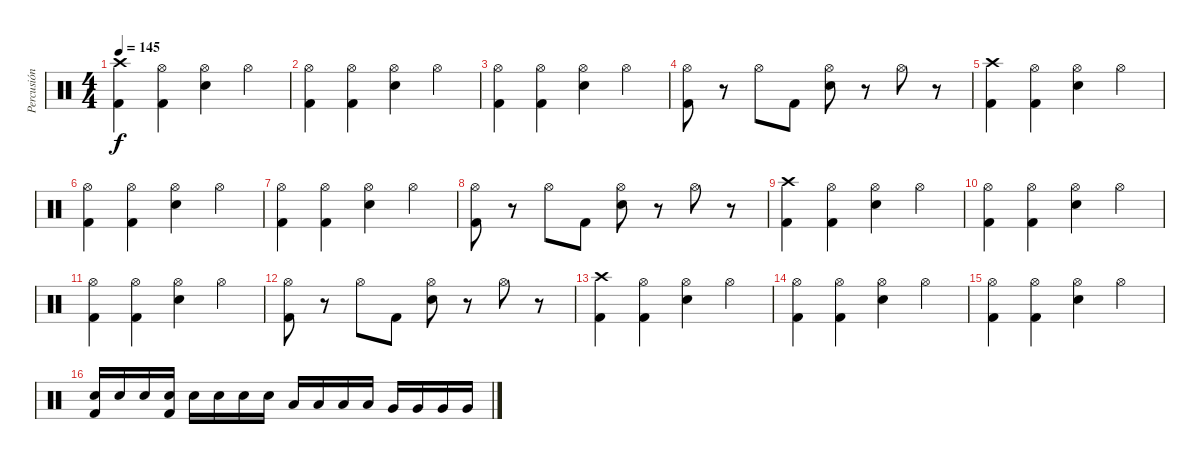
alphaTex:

\track ("Percusión" "Percusión") {instrument percussion}
\staff {score}
\articulation defaults
\ts (4 4)
\tempo 145
\clef neutral
\ks c
("Crash high (hit)" "Kick (hit) 2").4{dy f} ("Hi-Hat (open)" "Kick (hit) 2").4 ("Hi-Hat (open)" "Electric Snare (hit)").4 "Hi-Hat (open)".4 |
("Hi-Hat (open)" "Kick (hit) 2").4 ("Hi-Hat (open)" "Kick (hit) 2").4 ("Hi-Hat (open)" "Electric Snare (hit)").4 "Hi-Hat (open)".4 |
("Hi-Hat (open)" "Kick (hit) 2").4 ("Hi-Hat (open)" "Kick (hit) 2").4 ("Hi-Hat (open)" "Electric Snare (hit)").4 "Hi-Hat (open)".4 |
("Hi-Hat (open)" "Kick (hit) 2").8 r.8 "Hi-Hat (open)".8 "Kick (hit) 2".8 ("Hi-Hat (open)" "Electric Snare (hit)").8 r.8 "Hi-Hat (open)".8 r.8 |
("Crash high (hit)" "Kick (hit) 2").4 ("Hi-Hat (open)" "Kick (hit) 2").4 ("Hi-Hat (open)" "Electric Snare (hit)").4 "Hi-Hat (open)".4 |
("Hi-Hat (open)" "Kick (hit) 2").4 ("Hi-Hat (open)" "Kick (hit) 2").4 ("Hi-Hat (open)" "Electric Snare (hit)").4 "Hi-Hat (open)".4 |
("Hi-Hat (open)" "Kick (hit) 2").4 ("Hi-Hat (open)" "Kick (hit) 2").4 ("Hi-Hat (open)" "Electric Snare (hit)").4 "Hi-Hat (open)".4 |
("Hi-Hat (open)" "Kick (hit) 2").8 r.8 "Hi-Hat (open)".8 "Kick (hit) 2".8 ("Hi-Hat (open)" "Electric Snare (hit)").8 r.8 "Hi-Hat (open)".8 r.8 |
("Crash high (hit)" "Kick (hit) 2").4 ("Hi-Hat (open)" "Kick (hit) 2").4 ("Hi-Hat (open)" "Electric Snare (hit)").4 "Hi-Hat (open)".4 |
("Hi-Hat (open)" "Kick (hit) 2").4 ("Hi-Hat (open)" "Kick (hit) 2").4 ("Hi-Hat (open)" "Electric Snare (hit)").4 "Hi-Hat (open)".4 |
("Hi-Hat (open)" "Kick (hit) 2").4 ("Hi-Hat (open)" "Kick (hit) 2").4 ("Hi-Hat (open)" "Electric Snare (hit)").4 "Hi-Hat (open)".4 |
("Hi-Hat (open)" "Kick (hit) 2").8 r.8 "Hi-Hat (open)".8 "Kick (hit) 2".8 ("Hi-Hat (open)" "Electric Snare (hit)").8 r.8 "Hi-Hat (open)".8 r.8 |
("Crash high (hit)" "Kick (hit) 2").4 ("Hi-Hat (open)" "Kick (hit) 2").4 ("Hi-Hat (open)" "Electric Snare (hit)").4 "Hi-Hat (open)".4 |
("Hi-Hat (open)" "Kick (hit) 2").4 ("Hi-Hat (open)" "Kick (hit) 2").4 ("Hi-Hat (open)" "Electric Snare (hit)").4 "Hi-Hat (open)".4 |
("Hi-Hat (open)" "Kick (hit) 2").4 ("Hi-Hat (open)" "Kick (hit) 2").4 ("Hi-Hat (open)" "Electric Snare (hit)").4 "Hi-Hat (open)".4 |
("Electric Snare (hit)" "Kick (hit) 2").16 "Electric Snare (hit)".16 "Electric Snare (hit)".16 ("Electric Snare (hit)" "Kick (hit) 2").16 "Electric Snare (hit)".16 "Electric Snare (hit)".16 "Electric Snare (hit)".16 "Electric Snare (hit)".16 "Low Tom (hit)".16 "Low Tom (hit)".16 "Low Tom (hit)".16 "Low Tom (hit)".16 "Very Low Tom (hit)".16 "Very Low Tom (hit)".16 "Very Low Tom (hit)".16 "Very Low Tom (hit)".16
